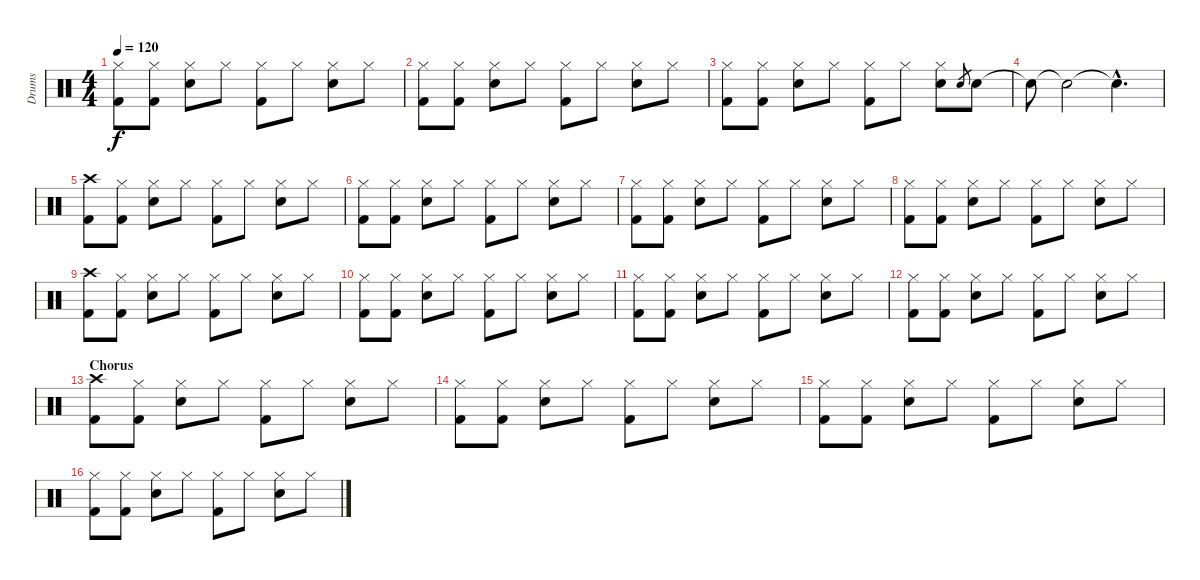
\track ("Drums" "Drums") {instrument percussion}
\staff {score}
\articulation defaults
\ts (4 4)
\tempo 120
\clef neutral
\ks c
("Hi-Hat (closed)" "Kick (hit) 2").8{dy f} ("Hi-Hat (closed)" "Kick (hit) 2").8 ("Hi-Hat (closed)" "Electric Snare (hit)").8 "Hi-Hat (closed)".8 ("Hi-Hat (closed)" "Kick (hit) 2").8 "Hi-Hat (closed)".8 ("Hi-Hat (closed)" "Electric Snare (hit)").8 "Hi-Hat (closed)".8 |
("Hi-Hat (closed)" "Kick (hit) 2").8 ("Hi-Hat (closed)" "Kick (hit) 2").8 ("Hi-Hat (closed)" "Electric Snare (hit)").8 "Hi-Hat (closed)".8 ("Hi-Hat (closed)" "Kick (hit) 2").8 "Hi-Hat (closed)".8 ("Hi-Hat (closed)" "Electric Snare (hit)").8 "Hi-Hat (closed)".8 |
("Hi-Hat (closed)" "Kick (hit) 2").8 ("Hi-Hat (closed)" "Kick (hit) 2").8 ("Hi-Hat (closed)" "Electric Snare (hit)").8 "Hi-Hat (closed)".8 ("Hi-Hat (closed)" "Kick (hit) 2").8 "Hi-Hat (closed)".8 ("Hi-Hat (closed)" "Electric Snare (hit)").8 "Electric Snare (hit)".8{gr} "Electric Snare (hit)".8 |
"Snare (hit)"{t}.8 "Snare (hit)"{t}.2 "Snare (hit)"{hac t}.4{d} |
("Crash high (hit)" "Kick (hit) 2").8 ("Hi-Hat (closed)" "Kick (hit) 2").8 ("Hi-Hat (closed)" "Electric Snare (hit)").8 "Hi-Hat (closed)".8 ("Hi-Hat (closed)" "Kick (hit) 2").8 "Hi-Hat (closed)".8 ("Hi-Hat (closed)" "Electric Snare (hit)").8 "Hi-Hat (closed)".8 |
("Hi-Hat (closed)" "Kick (hit) 2").8 ("Hi-Hat (closed)" "Kick (hit) 2").8 ("Hi-Hat (closed)" "Electric Snare (hit)").8 "Hi-Hat (closed)".8 ("Hi-Hat (closed)" "Kick (hit) 2").8 "Hi-Hat (closed)".8 ("Hi-Hat (closed)" "Electric Snare (hit)").8 "Hi-Hat (closed)".8 |
("Hi-Hat (closed)" "Kick (hit) 2").8 ("Hi-Hat (closed)" "Kick (hit) 2").8 ("Hi-Hat (closed)" "Electric Snare (hit)").8 "Hi-Hat (closed)".8 ("Hi-Hat (closed)" "Kick (hit) 2").8 "Hi-Hat (closed)".8 ("Hi-Hat (closed)" "Electric Snare (hit)").8 "Hi-Hat (closed)".8 |
("Hi-Hat (closed)" "Kick (hit) 2").8 ("Hi-Hat (closed)" "Kick (hit) 2").8 ("Hi-Hat (closed)" "Electric Snare (hit)").8 "Hi-Hat (closed)".8 ("Hi-Hat (closed)" "Kick (hit) 2").8 "Hi-Hat (closed)".8 ("Hi-Hat (closed)" "Electric Snare (hit)").8 "Hi-Hat (closed)".8 |
("Crash high (hit)" "Kick (hit) 2").8 ("Hi-Hat (closed)" "Kick (hit) 2").8 ("Hi-Hat (closed)" "Electric Snare (hit)").8 "Hi-Hat (closed)".8 ("Hi-Hat (closed)" "Kick (hit) 2").8 "Hi-Hat (closed)".8 ("Hi-Hat (closed)" "Electric Snare (hit)").8 "Hi-Hat (closed)".8 |
("Hi-Hat (closed)" "Kick (hit) 2").8 ("Hi-Hat (closed)" "Kick (hit) 2").8 ("Hi-Hat (closed)" "Electric Snare (hit)").8 "Hi-Hat (closed)".8 ("Hi-Hat (closed)" "Kick (hit) 2").8 "Hi-Hat (closed)".8 ("Hi-Hat (closed)" "Electric Snare (hit)").8 "Hi-Hat (closed)".8 |
("Hi-Hat (closed)" "Kick (hit) 2").8 ("Hi-Hat (closed)" "Kick (hit) 2").8 ("Hi-Hat (closed)" "Electric Snare (hit)").8 "Hi-Hat (closed)".8 ("Hi-Hat (closed)" "Kick (hit) 2").8 "Hi-Hat (closed)".8 ("Hi-Hat (closed)" "Electric Snare (hit)").8 "Hi-Hat (closed)".8 |
("Hi-Hat (closed)" "Kick (hit) 2").8 ("Hi-Hat (closed)" "Kick (hit) 2").8 ("Hi-Hat (closed)" "Electric Snare (hit)").8 "Hi-Hat (closed)".8 ("Hi-Hat (closed)" "Kick (hit) 2").8 "Hi-Hat (closed)".8 ("Hi-Hat (closed)" "Electric Snare (hit)").8 "Hi-Hat (closed)".8 |
\section ("" "Chorus")
("Crash high (hit)" "Kick (hit) 2").8 ("Hi-Hat (closed)" "Kick (hit) 2").8 ("Hi-Hat (closed)" "Electric Snare (hit)").8 "Hi-Hat (closed)".8 ("Hi-Hat (closed)" "Kick (hit) 2").8 "Hi-Hat (closed)".8 ("Hi-Hat (closed)" "Electric Snare (hit)").8 "Hi-Hat (closed)".8 |
("Hi-Hat (closed)" "Kick (hit) 2").8 ("Hi-Hat (closed)" "Kick (hit) 2").8 ("Hi-Hat (closed)" "Electric Snare (hit)").8 "Hi-Hat (closed)".8 ("Hi-Hat (closed)" "Kick (hit) 2").8 "Hi-Hat (closed)".8 ("Hi-Hat (closed)" "Electric Snare (hit)").8 "Hi-Hat (closed)".8 |
("Hi-Hat (closed)" "Kick (hit) 2").8 ("Hi-Hat (closed)" "Kick (hit) 2").8 ("Hi-Hat (closed)" "Electric Snare (hit)").8 "Hi-Hat (closed)".8 ("Hi-Hat (closed)" "Kick (hit) 2").8 "Hi-Hat (closed)".8 ("Hi-Hat (closed)" "Electric Snare (hit)").8 "Hi-Hat (closed)".8 |
("Hi-Hat (closed)" "Kick (hit) 2").8 ("Hi-Hat (closed)" "Kick (hit) 2").8 ("Hi-Hat (closed)" "Electric Snare (hit)").8 "Hi-Hat (closed)".8 ("Hi-Hat (closed)" "Kick (hit) 2").8 "Hi-Hat (closed)".8 ("Hi-Hat (closed)" "Electric Snare (hit)").8 "Hi-Hat (closed)".8
